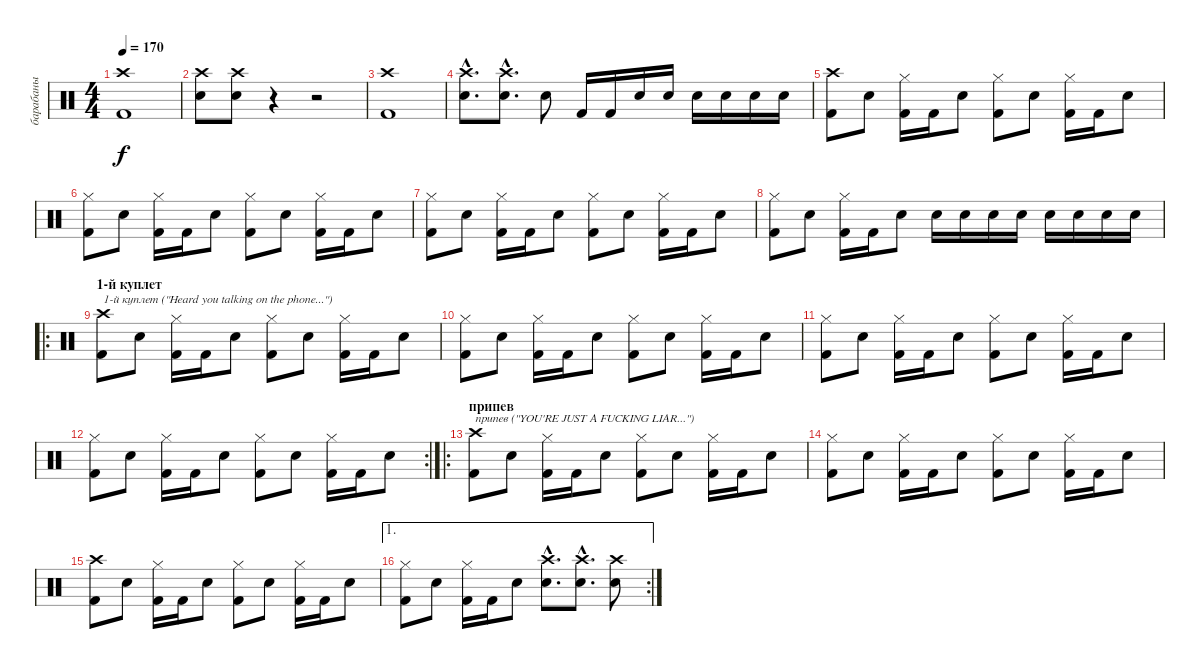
\track ("барабаны" "барабаны") {instrument percussion}
\staff {score}
\articulation defaults
\ts (4 4)
\tempo 170
\clef neutral
\ks c
("Crash high (hit)" "Kick (hit) 2").1{dy f} |
("Crash high (hit)" "Snare (hit) 2").8 ("Crash high (hit)" "Snare (hit) 2").8 r.4 r.2 |
("Crash high (hit)" "Kick (hit) 2").1 |
("Crash high (hit)"{hac} "Snare (hit) 2"{hac}).8{d} ("Crash high (hit)"{hac} "Snare (hit) 2"{hac}).8{d} "Snare (hit) 2".8 "Kick (hit) 2".16 "Kick (hit) 2".16 "Snare (hit) 2".16 "Snare (hit) 2".16 "Snare (hit) 2".16 "Snare (hit) 2".16 "Snare (hit) 2".16 "Snare (hit) 2".16 |
("Crash high (hit)" "Kick (hit) 2").8 "Snare (hit) 2".8 ("Hi-Hat (closed)" "Kick (hit) 2").16 "Kick (hit) 2".16 "Snare (hit) 2".8 ("Hi-Hat (closed)" "Kick (hit) 2").8 "Snare (hit) 2".8 ("Hi-Hat (closed)" "Kick (hit) 2").16 "Kick (hit) 2".16 "Snare (hit) 2".8 |
("Hi-Hat (closed)" "Kick (hit) 2").8 "Snare (hit) 2".8 ("Hi-Hat (closed)" "Kick (hit) 2").16 "Kick (hit) 2".16 "Snare (hit) 2".8 ("Hi-Hat (closed)" "Kick (hit) 2").8 "Snare (hit) 2".8 ("Hi-Hat (closed)" "Kick (hit) 2").16 "Kick (hit) 2".16 "Snare (hit) 2".8 |
("Hi-Hat (closed)" "Kick (hit) 2").8 "Snare (hit) 2".8 ("Hi-Hat (closed)" "Kick (hit) 2").16 "Kick (hit) 2".16 "Snare (hit) 2".8 ("Hi-Hat (closed)" "Kick (hit) 2").8 "Snare (hit) 2".8 ("Hi-Hat (closed)" "Kick (hit) 2").16 "Kick (hit) 2".16 "Snare (hit) 2".8 |
("Hi-Hat (closed)" "Kick (hit) 2").8 "Snare (hit) 2".8 ("Hi-Hat (closed)" "Kick (hit) 2").16 "Kick (hit) 2".16 "Snare (hit) 2".8 "Snare (hit) 2".16 "Snare (hit) 2".16 "Snare (hit) 2".16 "Snare (hit) 2".16 "Snare (hit) 2".16 "Snare (hit) 2".16 "Snare (hit) 2".16 "Snare (hit) 2".16 |
\ro
\section ("" "1-й куплет")
("Crash high (hit)" "Kick (hit) 2").8{txt "1-й куплет (\"Heard you talking on the phone...\")"} "Snare (hit) 2".8 ("Hi-Hat (closed)" "Kick (hit) 2").16 "Kick (hit) 2".16 "Snare (hit) 2".8 ("Hi-Hat (closed)" "Kick (hit) 2").8 "Snare (hit) 2".8 ("Hi-Hat (closed)" "Kick (hit) 2").16 "Kick (hit) 2".16 "Snare (hit) 2".8 |
("Hi-Hat (closed)" "Kick (hit) 2").8 "Snare (hit) 2".8 ("Hi-Hat (closed)" "Kick (hit) 2").16 "Kick (hit) 2".16 "Snare (hit) 2".8 ("Hi-Hat (closed)" "Kick (hit) 2").8 "Snare (hit) 2".8 ("Hi-Hat (closed)" "Kick (hit) 2").16 "Kick (hit) 2".16 "Snare (hit) 2".8 |
("Hi-Hat (closed)" "Kick (hit) 2").8 "Snare (hit) 2".8 ("Hi-Hat (closed)" "Kick (hit) 2").16 "Kick (hit) 2".16 "Snare (hit) 2".8 ("Hi-Hat (closed)" "Kick (hit) 2").8 "Snare (hit) 2".8 ("Hi-Hat (closed)" "Kick (hit) 2").16 "Kick (hit) 2".16 "Snare (hit) 2".8 |
\rc 2
("Hi-Hat (closed)" "Kick (hit) 2").8 "Snare (hit) 2".8 ("Hi-Hat (closed)" "Kick (hit) 2").16 "Kick (hit) 2".16 "Snare (hit) 2".8 ("Hi-Hat (closed)" "Kick (hit) 2").8 "Snare (hit) 2".8 ("Hi-Hat (closed)" "Kick (hit) 2").16 "Kick (hit) 2".16 "Snare (hit) 2".8 |
\ro
\section ("" "припев")
("Crash high (hit)" "Kick (hit) 2").8{txt "припев (\"YOU'RE JUST A FUCKING LIAR...\")"} "Snare (hit) 2".8 ("Hi-Hat (closed)" "Kick (hit) 2").16 "Kick (hit) 2".16 "Snare (hit) 2".8 ("Hi-Hat (closed)" "Kick (hit) 2").8 "Snare (hit) 2".8 ("Hi-Hat (closed)" "Kick (hit) 2").16 "Kick (hit) 2".16 "Snare (hit) 2".8 |
("Hi-Hat (closed)" "Kick (hit) 2").8 "Snare (hit) 2".8 ("Hi-Hat (closed)" "Kick (hit) 2").16 "Kick (hit) 2".16 "Snare (hit) 2".8 ("Hi-Hat (closed)" "Kick (hit) 2").8 "Snare (hit) 2".8 ("Hi-Hat (closed)" "Kick (hit) 2").16 "Kick (hit) 2".16 "Snare (hit) 2".8 |
("Crash high (hit)" "Kick (hit) 2").8 "Snare (hit) 2".8 ("Hi-Hat (closed)" "Kick (hit) 2").16 "Kick (hit) 2".16 "Snare (hit) 2".8 ("Hi-Hat (closed)" "Kick (hit) 2").8 "Snare (hit) 2".8 ("Hi-Hat (closed)" "Kick (hit) 2").16 "Kick (hit) 2".16 "Snare (hit) 2".8 |
\ae 1
\rc 2
("Hi-Hat (closed)" "Kick (hit) 2").8 "Snare (hit) 2".8 ("Hi-Hat (closed)" "Kick (hit) 2").16 "Kick (hit) 2".16 "Snare (hit) 2".8 ("Crash high (hit)"{hac} "Snare (hit) 2"{hac}).8{d} ("Crash high (hit)"{hac} "Snare (hit) 2"{hac}).8{d} ("Crash high (hit)" "Snare (hit) 2").8
